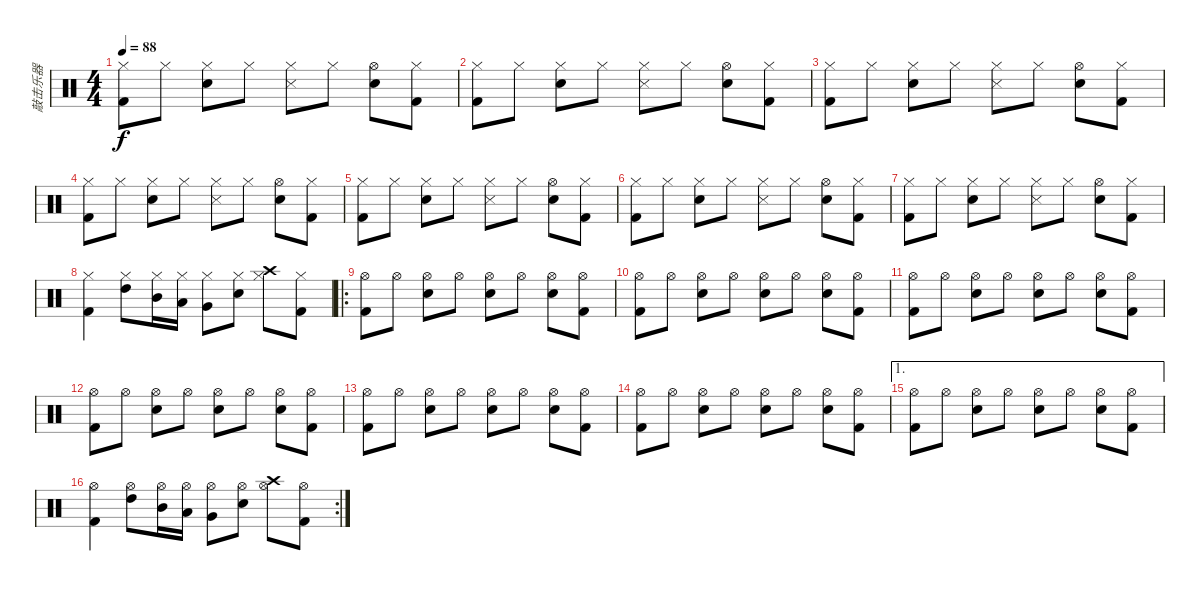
\track ("敲击乐器" "敲击乐器") {instrument percussion}
\staff {score}
\articulation defaults
\ts (4 4)
\tempo 88
\clef neutral
\ks c
("Kick (hit) 2" "Hi-Hat (closed)").8{dy f} "Hi-Hat (closed)".8 ("Snare (hit) 2" "Hi-Hat (closed)").8 "Hi-Hat (closed)".8 ("Snare (side stick) 3" "Hi-Hat (closed)").8 "Hi-Hat (closed)".8 ("Snare (hit) 2" "Hi-Hat (open)").8 ("Kick (hit) 2" "Hi-Hat (closed)").8 |
("Kick (hit) 2" "Hi-Hat (closed)").8 "Hi-Hat (closed)".8 ("Snare (hit) 2" "Hi-Hat (closed)").8 "Hi-Hat (closed)".8 ("Snare (side stick) 3" "Hi-Hat (closed)").8 "Hi-Hat (closed)".8 ("Snare (hit) 2" "Hi-Hat (open)").8 ("Kick (hit) 2" "Hi-Hat (closed)").8 |
("Kick (hit) 2" "Hi-Hat (closed)").8 "Hi-Hat (closed)".8 ("Snare (hit) 2" "Hi-Hat (closed)").8 "Hi-Hat (closed)".8 ("Snare (side stick) 3" "Hi-Hat (closed)").8 "Hi-Hat (closed)".8 ("Snare (hit) 2" "Hi-Hat (open)").8 ("Kick (hit) 2" "Hi-Hat (closed)").8 |
("Kick (hit) 2" "Hi-Hat (closed)").8 "Hi-Hat (closed)".8 ("Snare (hit) 2" "Hi-Hat (closed)").8 "Hi-Hat (closed)".8 ("Snare (side stick) 3" "Hi-Hat (closed)").8 "Hi-Hat (closed)".8 ("Snare (hit) 2" "Hi-Hat (open)").8 ("Kick (hit) 2" "Hi-Hat (closed)").8 |
("Kick (hit) 2" "Hi-Hat (closed)").8 "Hi-Hat (closed)".8 ("Snare (hit) 2" "Hi-Hat (closed)").8 "Hi-Hat (closed)".8 ("Snare (side stick) 3" "Hi-Hat (closed)").8 "Hi-Hat (closed)".8 ("Snare (hit) 2" "Hi-Hat (open)").8 ("Kick (hit) 2" "Hi-Hat (closed)").8 |
("Kick (hit) 2" "Hi-Hat (closed)").8 "Hi-Hat (closed)".8 ("Snare (hit) 2" "Hi-Hat (closed)").8 "Hi-Hat (closed)".8 ("Snare (side stick) 3" "Hi-Hat (closed)").8 "Hi-Hat (closed)".8 ("Snare (hit) 2" "Hi-Hat (open)").8 ("Kick (hit) 2" "Hi-Hat (closed)").8 |
("Kick (hit) 2" "Hi-Hat (closed)").8 "Hi-Hat (closed)".8 ("Snare (hit) 2" "Hi-Hat (closed)").8 "Hi-Hat (closed)".8 ("Snare (side stick) 3" "Hi-Hat (closed)").8 "Hi-Hat (closed)".8 ("Snare (hit) 2" "Hi-Hat (open)").8 ("Kick (hit) 2" "Hi-Hat (closed)").8 |
("Kick (hit) 2" "Hi-Hat (closed)").4 ("High Tom (hit)" "Hi-Hat (closed)").8 ("Mid Tom (hit)" "Hi-Hat (closed)").16 ("Low Tom (hit)" "Hi-Hat (closed)").16 ("Very Low Tom (hit)" "Hi-Hat (closed)").8 ("Snare (hit) 2" "Hi-Hat (closed)").8 ("Crash high (hit)" "Hi-Hat (closed)").8 ("Kick (hit) 2" "Hi-Hat (closed)").8 |
\ro
("Kick (hit) 2" "Hi-Hat (open)").8 "Hi-Hat (open)".8 ("Hand Clap (hit)" "Hi-Hat (open)").8 "Hi-Hat (open)".8 ("Electric Snare (hit)" "Hi-Hat (open)").8 "Hi-Hat (open)".8 ("Hand Clap (hit)" "Hi-Hat (open)").8 ("Kick (hit) 2" "Hi-Hat (open)").8 |
("Kick (hit) 2" "Hi-Hat (open)").8 "Hi-Hat (open)".8 ("Hand Clap (hit)" "Hi-Hat (open)").8 "Hi-Hat (open)".8 ("Electric Snare (hit)" "Hi-Hat (open)").8 "Hi-Hat (open)".8 ("Hand Clap (hit)" "Hi-Hat (open)").8 ("Kick (hit) 2" "Hi-Hat (open)").8 |
("Kick (hit) 2" "Hi-Hat (open)").8 "Hi-Hat (open)".8 ("Hand Clap (hit)" "Hi-Hat (open)").8 "Hi-Hat (open)".8 ("Electric Snare (hit)" "Hi-Hat (open)").8 "Hi-Hat (open)".8 ("Hand Clap (hit)" "Hi-Hat (open)").8 ("Kick (hit) 2" "Hi-Hat (open)").8 |
("Kick (hit) 2" "Hi-Hat (open)").8 "Hi-Hat (open)".8 ("Hand Clap (hit)" "Hi-Hat (open)").8 "Hi-Hat (open)".8 ("Electric Snare (hit)" "Hi-Hat (open)").8 "Hi-Hat (open)".8 ("Hand Clap (hit)" "Hi-Hat (open)").8 ("Kick (hit) 2" "Hi-Hat (open)").8 |
("Kick (hit) 2" "Hi-Hat (open)").8 "Hi-Hat (open)".8 ("Hand Clap (hit)" "Hi-Hat (open)").8 "Hi-Hat (open)".8 ("Electric Snare (hit)" "Hi-Hat (open)").8 "Hi-Hat (open)".8 ("Hand Clap (hit)" "Hi-Hat (open)").8 ("Kick (hit) 2" "Hi-Hat (open)").8 |
("Kick (hit) 2" "Hi-Hat (open)").8 "Hi-Hat (open)".8 ("Hand Clap (hit)" "Hi-Hat (open)").8 "Hi-Hat (open)".8 ("Electric Snare (hit)" "Hi-Hat (open)").8 "Hi-Hat (open)".8 ("Hand Clap (hit)" "Hi-Hat (open)").8 ("Kick (hit) 2" "Hi-Hat (open)").8 |
\ae 1
("Kick (hit) 2" "Hi-Hat (open)").8 "Hi-Hat (open)".8 ("Hand Clap (hit)" "Hi-Hat (open)").8 "Hi-Hat (open)".8 ("Electric Snare (hit)" "Hi-Hat (open)").8 "Hi-Hat (open)".8 ("Hand Clap (hit)" "Hi-Hat (open)").8 ("Kick (hit) 2" "Hi-Hat (open)").8 |
\rc 2
("Kick (hit) 2" "Hi-Hat (open)").4 ("High Tom (hit)" "Hi-Hat (open)").8 ("Mid Tom (hit)" "Hi-Hat (open)").16 ("Low Tom (hit)" "Hi-Hat (open)").16 ("Very Low Tom (hit)" "Hi-Hat (open)").8 ("Snare (hit) 2" "Hi-Hat (open)").8 ("Crash high (hit)" "Hi-Hat (open)").8 ("Kick (hit) 2" "Hi-Hat (open)").8
